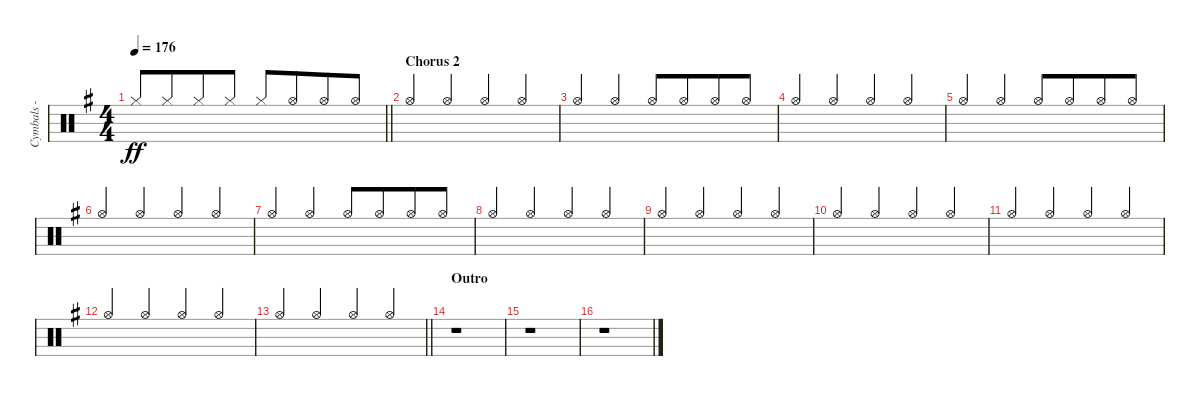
\track ("Cymbals - hi-hat" "Cymbals - ") {instrument percussion}
\staff {score}
\articulation defaults
\ts (4 4)
\tempo 176
\clef neutral
\barLineRight lightlight
\ks eminor "Hi-Hat (closed)".8{dy ff beam Up} "Hi-Hat (closed)".8{beam Up beam merge} "Hi-Hat (closed)".8{beam Up} "Hi-Hat (closed)".8{beam Up} "Hi-Hat (closed)".8{beam Up} "Hi-Hat (open)".8{beam Up beam merge} "Hi-Hat (open)".8{beam Up} "Hi-Hat (open)".8{beam Up}
|
\section ("" "Chorus 2")
"Hi-Hat (open)".4{beam Up} "Hi-Hat (open)".4{beam Up} "Hi-Hat (open)".4{beam Up} "Hi-Hat (open)".4{beam Up} |
"Hi-Hat (open)".4{beam Up} "Hi-Hat (open)".4{beam Up} "Hi-Hat (open)".8{beam Up} "Hi-Hat (open)".8{beam Up beam merge} "Hi-Hat (open)".8{beam Up} "Hi-Hat (open)".8{beam Up} |
"Hi-Hat (open)".4{beam Up} "Hi-Hat (open)".4{beam Up} "Hi-Hat (open)".4{beam Up} "Hi-Hat (open)".4{beam Up} |
"Hi-Hat (open)".4{beam Up} "Hi-Hat (open)".4{beam Up} "Hi-Hat (open)".8{beam Up} "Hi-Hat (open)".8{beam Up beam merge} "Hi-Hat (open)".8{beam Up} "Hi-Hat (open)".8{beam Up} |
"Hi-Hat (open)".4{beam Up} "Hi-Hat (open)".4{beam Up} "Hi-Hat (open)".4{beam Up} "Hi-Hat (open)".4{beam Up} |
"Hi-Hat (open)".4{beam Up} "Hi-Hat (open)".4{beam Up} "Hi-Hat (open)".8{beam Up} "Hi-Hat (open)".8{beam Up beam merge} "Hi-Hat (open)".8{beam Up} "Hi-Hat (open)".8{beam Up} |
"Hi-Hat (open)".4{beam Up} "Hi-Hat (open)".4{beam Up} "Hi-Hat (open)".4{beam Up} "Hi-Hat (open)".4{beam Up} |
"Hi-Hat (open)".4{beam Up} "Hi-Hat (open)".4{beam Up} "Hi-Hat (open)".4{beam Up} "Hi-Hat (open)".4{beam Up} |
"Hi-Hat (open)".4{beam Up} "Hi-Hat (open)".4{beam Up} "Hi-Hat (open)".4{beam Up} "Hi-Hat (open)".4{beam Up} |
"Hi-Hat (open)".4{beam Up} "Hi-Hat (open)".4{beam Up} "Hi-Hat (open)".4{beam Up} "Hi-Hat (open)".4{beam Up} |
"Hi-Hat (open)".4{beam Up} "Hi-Hat (open)".4{beam Up} "Hi-Hat (open)".4{beam Up} "Hi-Hat (open)".4{beam Up} |
\barLineRight lightlight "Hi-Hat (open)".4{beam Up} "Hi-Hat (open)".4{beam Up} "Hi-Hat (open)".4{beam Up} "Hi-Hat (open)".4{beam Up}
|
\section ("" "Outro")
r.1 |
r.1 |
r.1
